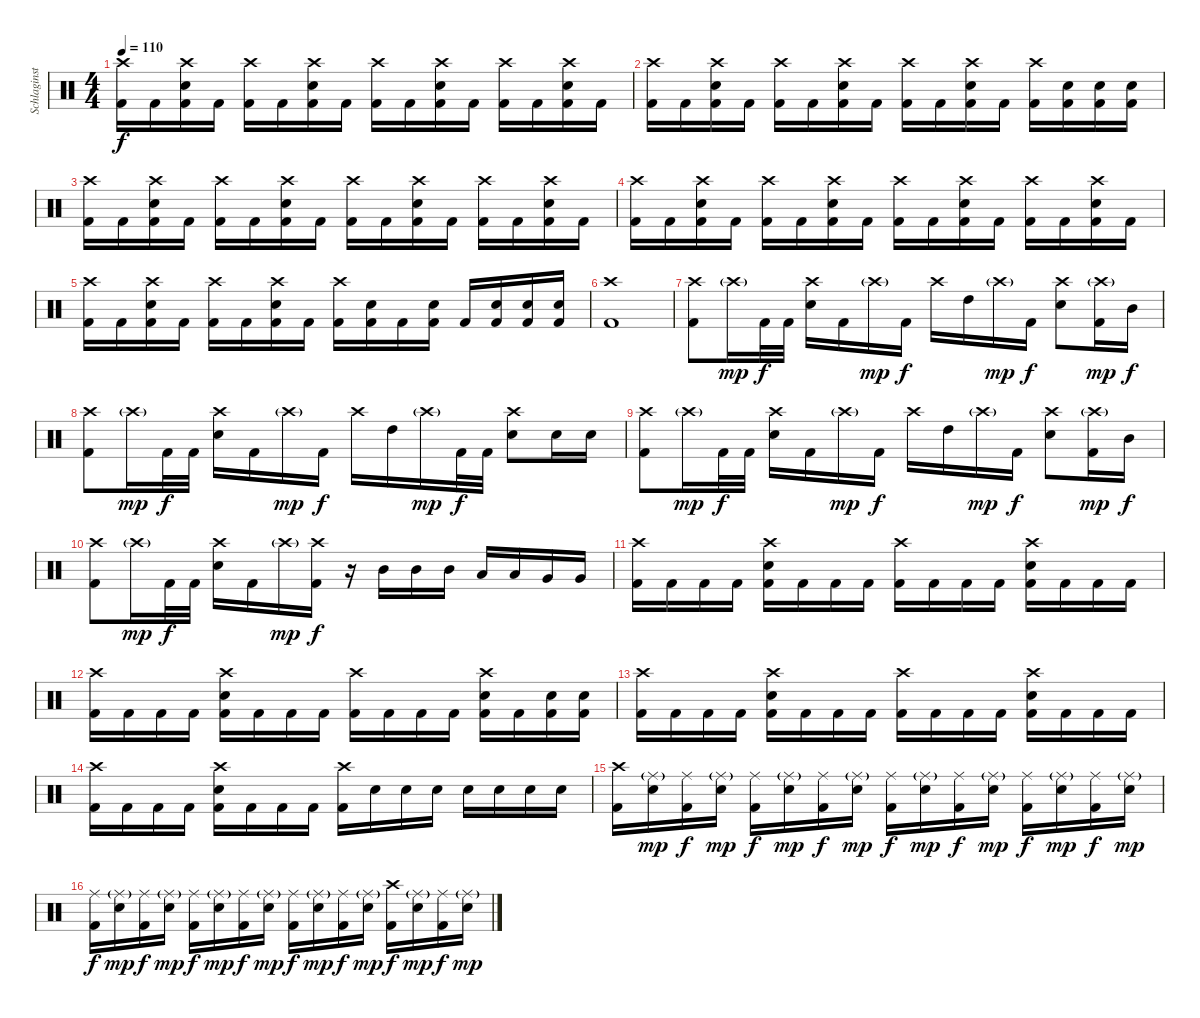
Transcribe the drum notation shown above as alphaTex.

\track ("Schlaginstrumente - Auswahl" "Schlaginst") {instrument percussion}
\staff {score}
\articulation defaults
\ts (4 4)
\tempo 110
\clef neutral
\ks c
("Crash high (hit)" "Kick (hit) 2").16{dy f} "Kick (hit) 2".16 ("Crash high (hit)" "Snare (hit) 2" "Kick (hit) 2").16 "Kick (hit) 2".16 ("Crash high (hit)" "Kick (hit) 2").16 "Kick (hit) 2".16 ("Crash high (hit)" "Snare (hit) 2" "Kick (hit) 2").16 "Kick (hit) 2".16 ("Crash high (hit)" "Kick (hit) 2").16 "Kick (hit) 2".16 ("Crash high (hit)" "Snare (hit) 2" "Kick (hit) 2").16 "Kick (hit) 2".16 ("Crash high (hit)" "Kick (hit) 2").16 "Kick (hit) 2".16 ("Crash high (hit)" "Snare (hit) 2" "Kick (hit) 2").16 "Kick (hit) 2".16 |
("Crash high (hit)" "Kick (hit) 2").16 "Kick (hit) 2".16 ("Crash high (hit)" "Snare (hit) 2" "Kick (hit) 2").16 "Kick (hit) 2".16 ("Crash high (hit)" "Kick (hit) 2").16 "Kick (hit) 2".16 ("Crash high (hit)" "Snare (hit) 2" "Kick (hit) 2").16 "Kick (hit) 2".16 ("Crash high (hit)" "Kick (hit) 2").16 "Kick (hit) 2".16 ("Crash high (hit)" "Snare (hit) 2" "Kick (hit) 2").16 "Kick (hit) 2".16 ("Crash high (hit)" "Kick (hit) 2").16 ("Snare (hit) 2" "Kick (hit) 2").16 ("Snare (hit) 2" "Kick (hit) 2").16 ("Snare (hit) 2" "Kick (hit) 2").16 |
("Crash high (hit)" "Kick (hit) 2").16 "Kick (hit) 2".16 ("Crash high (hit)" "Snare (hit) 2" "Kick (hit) 2").16 "Kick (hit) 2".16 ("Crash high (hit)" "Kick (hit) 2").16 "Kick (hit) 2".16 ("Crash high (hit)" "Snare (hit) 2" "Kick (hit) 2").16 "Kick (hit) 2".16 ("Crash high (hit)" "Kick (hit) 2").16 "Kick (hit) 2".16 ("Crash high (hit)" "Snare (hit) 2" "Kick (hit) 2").16 "Kick (hit) 2".16 ("Crash high (hit)" "Kick (hit) 2").16 "Kick (hit) 2".16 ("Crash high (hit)" "Snare (hit) 2" "Kick (hit) 2").16 "Kick (hit) 2".16 |
("Crash high (hit)" "Kick (hit) 2").16 "Kick (hit) 2".16 ("Crash high (hit)" "Snare (hit) 2" "Kick (hit) 2").16 "Kick (hit) 2".16 ("Crash high (hit)" "Kick (hit) 2").16 "Kick (hit) 2".16 ("Crash high (hit)" "Snare (hit) 2" "Kick (hit) 2").16 "Kick (hit) 2".16 ("Crash high (hit)" "Kick (hit) 2").16 "Kick (hit) 2".16 ("Crash high (hit)" "Snare (hit) 2" "Kick (hit) 2").16 "Kick (hit) 2".16 ("Crash high (hit)" "Kick (hit) 2").16 "Kick (hit) 2".16 ("Crash high (hit)" "Snare (hit) 2" "Kick (hit) 2").16 "Kick (hit) 2".16 |
("Crash high (hit)" "Kick (hit) 2").16 "Kick (hit) 2".16 ("Crash high (hit)" "Snare (hit) 2" "Kick (hit) 2").16 "Kick (hit) 2".16 ("Crash high (hit)" "Kick (hit) 2").16 "Kick (hit) 2".16 ("Crash high (hit)" "Snare (hit) 2" "Kick (hit) 2").16 "Kick (hit) 2".16 ("Crash high (hit)" "Kick (hit) 2").16 ("Snare (hit) 2" "Kick (hit) 2").16 "Kick (hit) 2".16 ("Snare (hit) 2" "Kick (hit) 2").16 "Kick (hit) 2".16 ("Snare (hit) 2" "Kick (hit) 2").16 ("Snare (hit) 2" "Kick (hit) 2").16 ("Snare (hit) 2" "Kick (hit) 2").16 |
("Crash high (hit)" "Kick (hit) 2").1 |
("Crash high (hit)" "Kick (hit) 2").8 "Crash high (hit)"{g}.16{dy mp} "Kick (hit) 2".32{dy f} "Kick (hit) 2".32 ("Crash high (hit)" "Snare (hit) 2").16 "Kick (hit) 2".16 "Crash high (hit)"{g}.16{dy mp} "Kick (hit) 2".16{dy f} "Crash high (hit)".16 "High Tom (hit)".16 "Crash high (hit)"{g}.16{dy mp} "Kick (hit) 2".16{dy f} ("Crash high (hit)" "Snare (hit) 2").8 ("Crash high (hit)"{g} "Kick (hit) 2").16{dy mp} "Mid Tom (hit)".16{dy f} |
("Crash high (hit)" "Kick (hit) 2").8 "Crash high (hit)"{g}.16{dy mp} "Kick (hit) 2".32{dy f} "Kick (hit) 2".32 ("Crash high (hit)" "Snare (hit) 2").16 "Kick (hit) 2".16 "Crash high (hit)"{g}.16{dy mp} "Kick (hit) 2".16{dy f} "Crash high (hit)".16 "High Tom (hit)".16 "Crash high (hit)"{g}.16{dy mp} "Kick (hit) 2".32{dy f} "Kick (hit) 2".32 ("Crash high (hit)" "Snare (hit) 2").8 "Snare (hit) 2".16 "Snare (hit) 2".16 |
("Crash high (hit)" "Kick (hit) 2").8 "Crash high (hit)"{g}.16{dy mp} "Kick (hit) 2".32{dy f} "Kick (hit) 2".32 ("Crash high (hit)" "Snare (hit) 2").16 "Kick (hit) 2".16 "Crash high (hit)"{g}.16{dy mp} "Kick (hit) 2".16{dy f} "Crash high (hit)".16 "High Tom (hit)".16 "Crash high (hit)"{g}.16{dy mp} "Kick (hit) 2".16{dy f} ("Crash high (hit)" "Snare (hit) 2").8 ("Crash high (hit)"{g} "Kick (hit) 2").16{dy mp} "Mid Tom (hit)".16{dy f} |
("Crash high (hit)" "Kick (hit) 2").8 "Crash high (hit)"{g}.16{dy mp} "Kick (hit) 2".32{dy f} "Kick (hit) 2".32 ("Crash high (hit)" "Snare (hit) 2").16 "Kick (hit) 2".16 "Crash high (hit)"{g}.16{dy mp} ("Crash high (hit)" "Kick (hit) 2").16{dy f} r.16 "Mid Tom (hit)".16 "Mid Tom (hit)".16 "Mid Tom (hit)".16 "Low Tom (hit)".16 "Low Tom (hit)".16 "Very Low Tom (hit)".16 "Very Low Tom (hit)".16 |
("Crash high (hit)" "Kick (hit) 2").16 "Kick (hit) 2".16 "Kick (hit) 2".16 "Kick (hit) 2".16 ("Crash high (hit)" "Snare (hit) 2" "Kick (hit) 2").16 "Kick (hit) 2".16 "Kick (hit) 2".16 "Kick (hit) 2".16 ("Crash high (hit)" "Kick (hit) 2").16 "Kick (hit) 2".16 "Kick (hit) 2".16 "Kick (hit) 2".16 ("Crash high (hit)" "Snare (hit) 2" "Kick (hit) 2").16 "Kick (hit) 2".16 "Kick (hit) 2".16 "Kick (hit) 2".16 |
("Crash high (hit)" "Kick (hit) 2").16 "Kick (hit) 2".16 "Kick (hit) 2".16 "Kick (hit) 2".16 ("Crash high (hit)" "Snare (hit) 2" "Kick (hit) 2").16 "Kick (hit) 2".16 "Kick (hit) 2".16 "Kick (hit) 2".16 ("Crash high (hit)" "Kick (hit) 2").16 "Kick (hit) 2".16 "Kick (hit) 2".16 "Kick (hit) 2".16 ("Crash high (hit)" "Snare (hit) 2" "Kick (hit) 2").16 "Kick (hit) 2".16 ("Snare (hit) 2" "Kick (hit) 2").16 ("Snare (hit) 2" "Kick (hit) 2").16 |
("Crash high (hit)" "Kick (hit) 2").16 "Kick (hit) 2".16 "Kick (hit) 2".16 "Kick (hit) 2".16 ("Crash high (hit)" "Snare (hit) 2" "Kick (hit) 2").16 "Kick (hit) 2".16 "Kick (hit) 2".16 "Kick (hit) 2".16 ("Crash high (hit)" "Kick (hit) 2").16 "Kick (hit) 2".16 "Kick (hit) 2".16 "Kick (hit) 2".16 ("Crash high (hit)" "Snare (hit) 2" "Kick (hit) 2").16 "Kick (hit) 2".16 "Kick (hit) 2".16 "Kick (hit) 2".16 |
("Crash high (hit)" "Kick (hit) 2").16 "Kick (hit) 2".16 "Kick (hit) 2".16 "Kick (hit) 2".16 ("Crash high (hit)" "Snare (hit) 2" "Kick (hit) 2").16 "Kick (hit) 2".16 "Kick (hit) 2".16 "Kick (hit) 2".16 ("Crash high (hit)" "Kick (hit) 2").16 "Snare (hit) 2".16 "Snare (hit) 2".16 "Snare (hit) 2".16 "Snare (hit) 2".16 "Snare (hit) 2".16 "Snare (hit) 2".16 "Snare (hit) 2".16 |
("Crash high (hit)" "Kick (hit) 2").16 ("Ride (middle)"{g} "Snare (hit) 2").16{dy mp} ("Ride (middle)" "Kick (hit) 2").16{dy f} ("Ride (middle)"{g} "Snare (hit) 2").16{dy mp} ("Ride (middle)" "Kick (hit) 2").16{dy f} ("Ride (middle)"{g} "Snare (hit) 2").16{dy mp} ("Ride (middle)" "Kick (hit) 2").16{dy f} ("Ride (middle)"{g} "Snare (hit) 2").16{dy mp} ("Ride (middle)" "Kick (hit) 2").16{dy f} ("Ride (middle)"{g} "Snare (hit) 2").16{dy mp} ("Ride (middle)" "Kick (hit) 2").16{dy f} ("Ride (middle)"{g} "Snare (hit) 2").16{dy mp} ("Ride (middle)" "Kick (hit) 2").16{dy f} ("Ride (middle)"{g} "Snare (hit) 2").16{dy mp} ("Ride (middle)" "Kick (hit) 2").16{dy f} ("Ride (middle)"{g} "Snare (hit) 2").16{dy mp} |
("Ride (middle)" "Kick (hit) 2").16{dy f} ("Ride (middle)"{g} "Snare (hit) 2").16{dy mp} ("Ride (middle)" "Kick (hit) 2").16{dy f} ("Ride (middle)"{g} "Snare (hit) 2").16{dy mp} ("Ride (middle)" "Kick (hit) 2").16{dy f} ("Ride (middle)"{g} "Snare (hit) 2").16{dy mp} ("Ride (middle)" "Kick (hit) 2").16{dy f} ("Ride (middle)"{g} "Snare (hit) 2").16{dy mp} ("Ride (middle)" "Kick (hit) 2").16{dy f} ("Ride (middle)"{g} "Snare (hit) 2").16{dy mp} ("Ride (middle)" "Kick (hit) 2").16{dy f} ("Ride (middle)"{g} "Snare (hit) 2").16{dy mp} ("Crash high (hit)" "Kick (hit) 2").16{dy f} ("Ride (middle)"{g} "Snare (hit) 2").16{dy mp} ("Ride (middle)" "Kick (hit) 2").16{dy f} ("Ride (middle)"{g} "Snare (hit) 2").16{dy mp}
